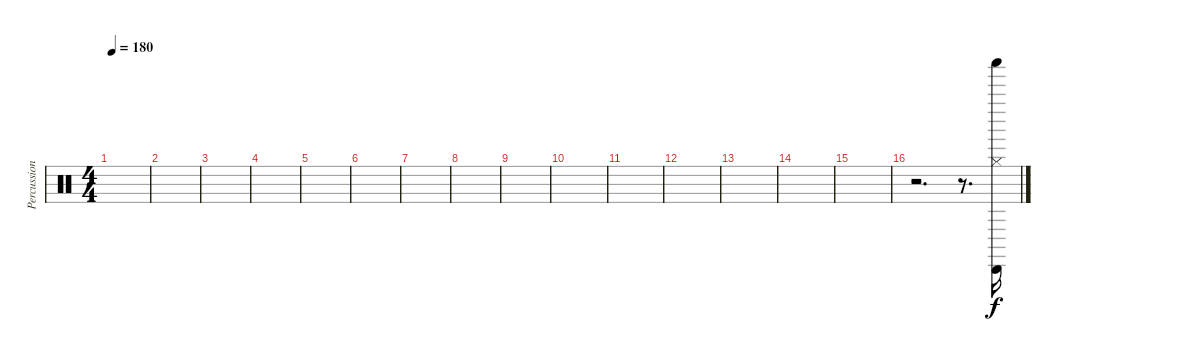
\track ("Percussion" "Percussion") {instrument percussion}
\staff {score}
\articulation defaults
\ts (4 4)
\tempo 180
\clef neutral
\ks c
|
|
|
|
|
|
|
|
|
|
|
|
|
|
|
r.2{d} r.8{d} ("Cabasa (hit)" "Hi-Hat (closed)" "Shaker (hit)").16
